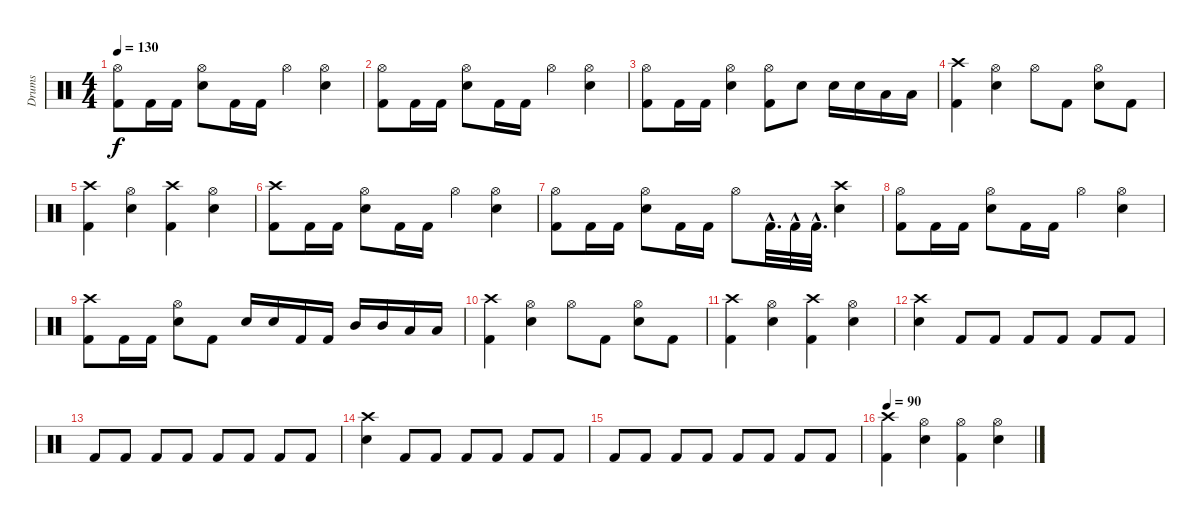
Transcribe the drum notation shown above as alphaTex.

\track ("Drums" "Drums") {instrument percussion}
\staff {score}
\articulation defaults
\ts (4 4)
\tempo 130
\clef neutral
\ks c
("Hi-Hat (open)" "Kick (hit) 2").8{dy f} "Kick (hit) 2".16 "Kick (hit) 2".16 ("Snare (hit) 2" "Hi-Hat (open)").8 "Kick (hit) 2".16 "Kick (hit) 2".16 "Hi-Hat (open)".4 ("Snare (hit) 2" "Hi-Hat (open)").4 |
("Kick (hit) 2" "Hi-Hat (open)").8 "Kick (hit) 2".16 "Kick (hit) 2".16 ("Hi-Hat (open)" "Snare (hit) 2").8 "Kick (hit) 2".16 "Kick (hit) 2".16 "Hi-Hat (open)".4 ("Hi-Hat (open)" "Snare (hit) 2").4 |
("Kick (hit) 2" "Hi-Hat (open)").8 "Kick (hit) 2".16 "Kick (hit) 2".16 ("Snare (hit) 2" "Hi-Hat (open)").4 ("Hi-Hat (open)" "Kick (hit) 2").8 "Snare (hit) 2".8 "Snare (hit) 2".16 "Snare (hit) 2".16 "Low Tom (hit)".16 "Low Tom (hit)".16 |
("Kick (hit) 2" "Crash high (hit)").4 ("Snare (hit) 2" "Hi-Hat (open)").4 "Hi-Hat (open)".8 "Kick (hit) 2".8 ("Snare (hit) 2" "Hi-Hat (open)").8 "Kick (hit) 2".8 |
("Crash high (hit)" "Kick (hit) 2").4 ("Hi-Hat (open)" "Snare (hit) 2").4 ("Crash high (hit)" "Kick (hit) 2").4 ("Hi-Hat (open)" "Snare (hit) 2").4 |
("Crash high (hit)" "Kick (hit) 2").8 "Kick (hit) 2".16 "Kick (hit) 2".16 ("Hi-Hat (open)" "Snare (hit) 2").8 "Kick (hit) 2".16 "Kick (hit) 2".16 "Hi-Hat (open)".4 ("Hi-Hat (open)" "Snare (hit) 2").4 |
("Hi-Hat (open)" "Kick (hit) 2").8 "Kick (hit) 2".16 "Kick (hit) 2".16 ("Hi-Hat (open)" "Snare (hit) 2").8 "Kick (hit) 2".16 "Kick (hit) 2".16 "Hi-Hat (open)".8 "Kick (hit) 2"{hac}.32{d} "Kick (hit) 2"{hac}.32 "Kick (hit) 2"{hac}.32{d} ("Crash high (hit)" "Snare (hit) 2").4 |
("Kick (hit) 2" "Hi-Hat (open)").8 "Kick (hit) 2".16 "Kick (hit) 2".16 ("Snare (hit) 2" "Hi-Hat (open)").8 "Kick (hit) 2".16 "Kick (hit) 2".16 "Hi-Hat (open)".4 ("Snare (hit) 2" "Hi-Hat (open)").4 |
("Kick (hit) 2" "Crash high (hit)").8 "Kick (hit) 2".16 "Kick (hit) 2".16 ("Snare (hit) 2" "Hi-Hat (open)").8 "Kick (hit) 2".8 "Snare (hit) 2".16 "Snare (hit) 2".16 "Kick (hit) 2".16 "Kick (hit) 2".16 "Mid Tom (hit)".16 "Mid Tom (hit)".16 "Low Tom (hit)".16 "Low Tom (hit)".16 |
("Crash high (hit)" "Kick (hit) 2").4 ("Hi-Hat (open)" "Snare (hit) 2").4 "Hi-Hat (open)".8 "Kick (hit) 2".8 ("Snare (hit) 2" "Hi-Hat (open)").8 "Kick (hit) 2".8 |
("Crash high (hit)" "Kick (hit) 2").4 ("Snare (hit) 2" "Hi-Hat (open)").4 ("Kick (hit) 2" "Crash high (hit)").4 ("Snare (hit) 2" "Hi-Hat (open)").4 |
("Crash high (hit)" "Snare (hit) 2").4 "Kick (hit) 2".8 "Kick (hit) 2".8 "Kick (hit) 2".8 "Kick (hit) 2".8 "Kick (hit) 2".8 "Kick (hit) 2".8 |
"Kick (hit) 2".8 "Kick (hit) 2".8 "Kick (hit) 2".8 "Kick (hit) 2".8 "Kick (hit) 2".8 "Kick (hit) 2".8 "Kick (hit) 2".8 "Kick (hit) 2".8 |
("Snare (hit) 2" "Crash high (hit)").4 "Kick (hit) 2".8 "Kick (hit) 2".8 "Kick (hit) 2".8 "Kick (hit) 2".8 "Kick (hit) 2".8 "Kick (hit) 2".8 |
"Kick (hit) 2".8 "Kick (hit) 2".8 "Kick (hit) 2".8 "Kick (hit) 2".8 "Kick (hit) 2".8 "Kick (hit) 2".8 "Kick (hit) 2".8 "Kick (hit) 2".8 |
\tempo 90
("Crash high (hit)" "Kick (hit) 2").4 ("Snare (hit) 2" "Hi-Hat (open)").4 ("Kick (hit) 2" "Hi-Hat (open)").4 ("Hi-Hat (open)" "Snare (hit) 2").4
